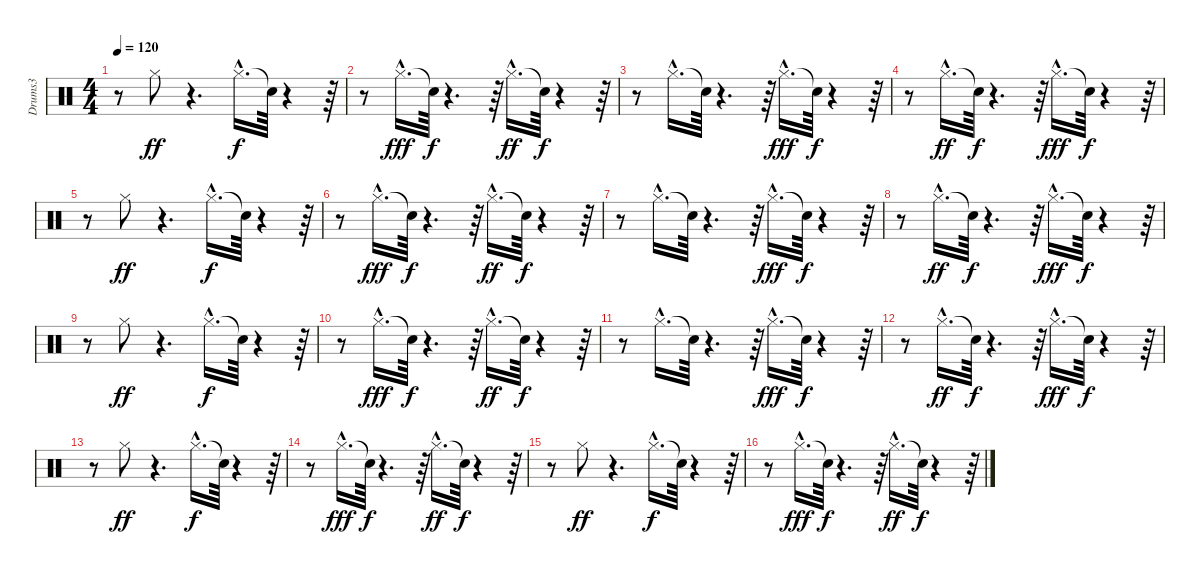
\track ("Drums3" "Drums3") {instrument percussion}
\staff {score}
\articulation defaults
\ts (4 4)
\tempo 120
\clef neutral
\ks c
r.8{dy f} "Hi-Hat (closed)".8{dy ff} r.4{d} "Hi-Hat (closed)"{hac}.16{d dy f} "Snare (hit)"{t}.64 r.4 r.64 |
r.8 "Hi-Hat (closed)"{hac}.16{d dy fff} "Snare (hit)"{t}.64{dy f} r.4{d} r.64 "Hi-Hat (closed)"{hac}.16{d dy ff} "Snare (hit)"{t}.64{dy f} r.4 r.64 |
r.8 "Hi-Hat (closed)"{hac}.16{d} "Snare (hit)"{t}.64 r.4{d} r.64 "Hi-Hat (closed)"{hac}.16{d dy fff} "Snare (hit)"{t}.64{dy f} r.4 r.64 |
r.8 "Hi-Hat (closed)"{hac}.16{d dy ff} "Snare (hit)"{t}.64{dy f} r.4{d} r.64 "Hi-Hat (closed)"{hac}.16{d dy fff} "Snare (hit)"{t}.64{dy f} r.4 r.64 |
r.8 "Hi-Hat (closed)".8{dy ff} r.4{d} "Hi-Hat (closed)"{hac}.16{d dy f} "Snare (hit)"{t}.64 r.4 r.64 |
r.8 "Hi-Hat (closed)"{hac}.16{d dy fff} "Snare (hit)"{t}.64{dy f} r.4{d} r.64 "Hi-Hat (closed)"{hac}.16{d dy ff} "Snare (hit)"{t}.64{dy f} r.4 r.64 |
r.8 "Hi-Hat (closed)"{hac}.16{d} "Snare (hit)"{t}.64 r.4{d} r.64 "Hi-Hat (closed)"{hac}.16{d dy fff} "Snare (hit)"{t}.64{dy f} r.4 r.64 |
r.8 "Hi-Hat (closed)"{hac}.16{d dy ff} "Snare (hit)"{t}.64{dy f} r.4{d} r.64 "Hi-Hat (closed)"{hac}.16{d dy fff} "Snare (hit)"{t}.64{dy f} r.4 r.64 |
r.8 "Hi-Hat (closed)".8{dy ff} r.4{d} "Hi-Hat (closed)"{hac}.16{d dy f} "Snare (hit)"{t}.64 r.4 r.64 |
r.8 "Hi-Hat (closed)"{hac}.16{d dy fff} "Snare (hit)"{t}.64{dy f} r.4{d} r.64 "Hi-Hat (closed)"{hac}.16{d dy ff} "Snare (hit)"{t}.64{dy f} r.4 r.64 |
r.8 "Hi-Hat (closed)"{hac}.16{d} "Snare (hit)"{t}.64 r.4{d} r.64 "Hi-Hat (closed)"{hac}.16{d dy fff} "Snare (hit)"{t}.64{dy f} r.4 r.64 |
r.8 "Hi-Hat (closed)"{hac}.16{d dy ff} "Snare (hit)"{t}.64{dy f} r.4{d} r.64 "Hi-Hat (closed)"{hac}.16{d dy fff} "Snare (hit)"{t}.64{dy f} r.4 r.64 |
r.8 "Hi-Hat (closed)".8{dy ff} r.4{d} "Hi-Hat (closed)"{hac}.16{d dy f} "Snare (hit)"{t}.64 r.4 r.64 |
r.8 "Hi-Hat (closed)"{hac}.16{d dy fff} "Snare (hit)"{t}.64{dy f} r.4{d} r.64 "Hi-Hat (closed)"{hac}.16{d dy ff} "Snare (hit)"{t}.64{dy f} r.4 r.64 |
r.8 "Hi-Hat (closed)".8{dy ff} r.4{d} "Hi-Hat (closed)"{hac}.16{d dy f} "Snare (hit)"{t}.64 r.4 r.64 |
r.8 "Hi-Hat (closed)"{hac}.16{d dy fff} "Snare (hit)"{t}.64{dy f} r.4{d} r.64 "Hi-Hat (closed)"{hac}.16{d dy ff} "Snare (hit)"{t}.64{dy f} r.4 r.64
